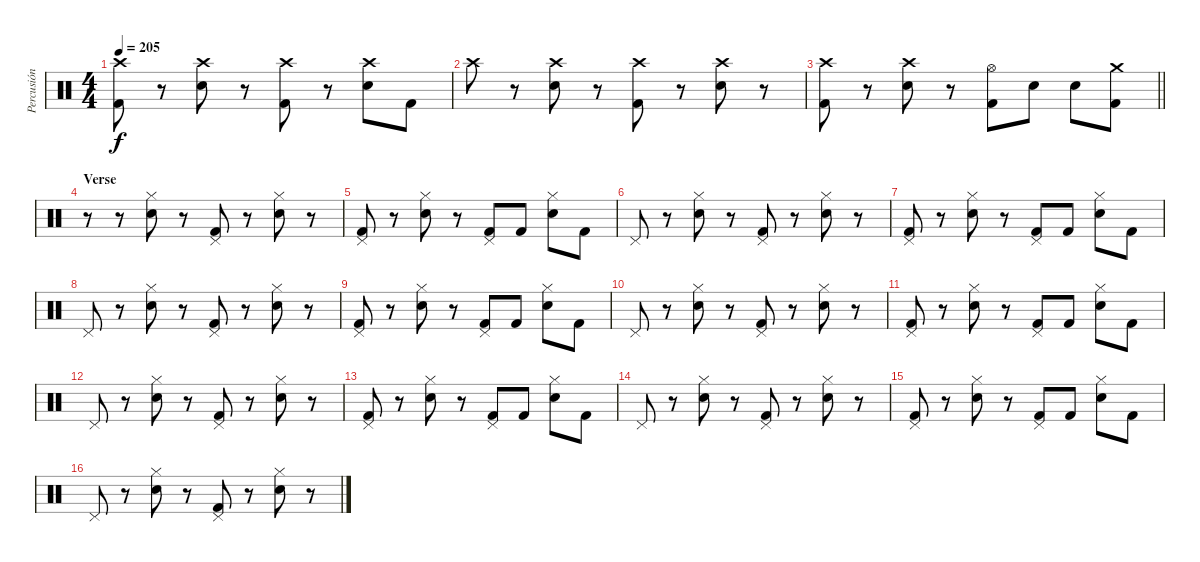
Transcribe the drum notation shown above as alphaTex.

\track ("Percusión" "Percusión") {instrument percussion}
\staff {score}
\articulation defaults
\ts (4 4)
\tempo 205
\clef neutral
\ks c
("Crash high (hit)" "Kick (hit) 2").8{dy f} r.8 ("Crash high (hit)" "Electric Snare (hit)").8 r.8 ("Crash high (hit)" "Kick (hit) 2").8 r.8 ("Crash high (hit)" "Electric Snare (hit)").8 "Kick (hit) 2".8 |
"Crash high (hit)".8 r.8 ("Crash high (hit)" "Electric Snare (hit)").8 r.8 ("Crash high (hit)" "Kick (hit) 2").8 r.8 ("Crash high (hit)" "Electric Snare (hit)").8 r.8 |
\barLineRight lightlight
("Crash high (hit)" "Kick (hit) 2").8 r.8 ("Crash high (hit)" "Electric Snare (hit)").8 r.8 ("Hi-Hat (open)" "Kick (hit) 2").8 "Electric Snare (hit)".8 "Electric Snare (hit)".8 ("Crash medium (hit)" "Kick (hit) 2").8 |
\section ("" "Verse")
r.8 r.8 ("Hi-Hat (closed)" "Electric Snare (hit)").8 r.8 ("Pedal Hi-Hat (hit)" "Kick (hit) 2").8 r.8 ("Hi-Hat (closed)" "Electric Snare (hit)").8 r.8 |
("Pedal Hi-Hat (hit)" "Kick (hit) 2").8 r.8 ("Hi-Hat (closed)" "Electric Snare (hit)").8 r.8 ("Pedal Hi-Hat (hit)" "Kick (hit) 2").8 "Kick (hit) 2".8 ("Hi-Hat (closed)" "Electric Snare (hit)").8 "Kick (hit) 2".8 |
"Pedal Hi-Hat (hit)".8 r.8 ("Hi-Hat (closed)" "Electric Snare (hit)").8 r.8 ("Pedal Hi-Hat (hit)" "Kick (hit) 2").8 r.8 ("Hi-Hat (closed)" "Electric Snare (hit)").8 r.8 |
("Pedal Hi-Hat (hit)" "Kick (hit) 2").8 r.8 ("Hi-Hat (closed)" "Electric Snare (hit)").8 r.8 ("Pedal Hi-Hat (hit)" "Kick (hit) 2").8 "Kick (hit) 2".8 ("Hi-Hat (closed)" "Electric Snare (hit)").8 "Kick (hit) 2".8 |
"Pedal Hi-Hat (hit)".8 r.8 ("Hi-Hat (closed)" "Electric Snare (hit)").8 r.8 ("Pedal Hi-Hat (hit)" "Kick (hit) 2").8 r.8 ("Hi-Hat (closed)" "Electric Snare (hit)").8 r.8 |
("Pedal Hi-Hat (hit)" "Kick (hit) 2").8 r.8 ("Hi-Hat (closed)" "Electric Snare (hit)").8 r.8 ("Pedal Hi-Hat (hit)" "Kick (hit) 2").8 "Kick (hit) 2".8 ("Hi-Hat (closed)" "Electric Snare (hit)").8 "Kick (hit) 2".8 |
"Pedal Hi-Hat (hit)".8 r.8 ("Hi-Hat (closed)" "Electric Snare (hit)").8 r.8 ("Pedal Hi-Hat (hit)" "Kick (hit) 2").8 r.8 ("Hi-Hat (closed)" "Electric Snare (hit)").8 r.8 |
("Pedal Hi-Hat (hit)" "Kick (hit) 2").8 r.8 ("Hi-Hat (closed)" "Electric Snare (hit)").8 r.8 ("Pedal Hi-Hat (hit)" "Kick (hit) 2").8 "Kick (hit) 2".8 ("Hi-Hat (closed)" "Electric Snare (hit)").8 "Kick (hit) 2".8 |
"Pedal Hi-Hat (hit)".8 r.8 ("Hi-Hat (closed)" "Electric Snare (hit)").8 r.8 ("Pedal Hi-Hat (hit)" "Kick (hit) 2").8 r.8 ("Hi-Hat (closed)" "Electric Snare (hit)").8 r.8 |
("Pedal Hi-Hat (hit)" "Kick (hit) 2").8 r.8 ("Hi-Hat (closed)" "Electric Snare (hit)").8 r.8 ("Pedal Hi-Hat (hit)" "Kick (hit) 2").8 "Kick (hit) 2".8 ("Hi-Hat (closed)" "Electric Snare (hit)").8 "Kick (hit) 2".8 |
"Pedal Hi-Hat (hit)".8 r.8 ("Hi-Hat (closed)" "Electric Snare (hit)").8 r.8 ("Pedal Hi-Hat (hit)" "Kick (hit) 2").8 r.8 ("Hi-Hat (closed)" "Electric Snare (hit)").8 r.8 |
("Pedal Hi-Hat (hit)" "Kick (hit) 2").8 r.8 ("Hi-Hat (closed)" "Electric Snare (hit)").8 r.8 ("Pedal Hi-Hat (hit)" "Kick (hit) 2").8 "Kick (hit) 2".8 ("Hi-Hat (closed)" "Electric Snare (hit)").8 "Kick (hit) 2".8 |
"Pedal Hi-Hat (hit)".8 r.8 ("Hi-Hat (closed)" "Electric Snare (hit)").8 r.8 ("Pedal Hi-Hat (hit)" "Kick (hit) 2").8 r.8 ("Hi-Hat (closed)" "Electric Snare (hit)").8 r.8
